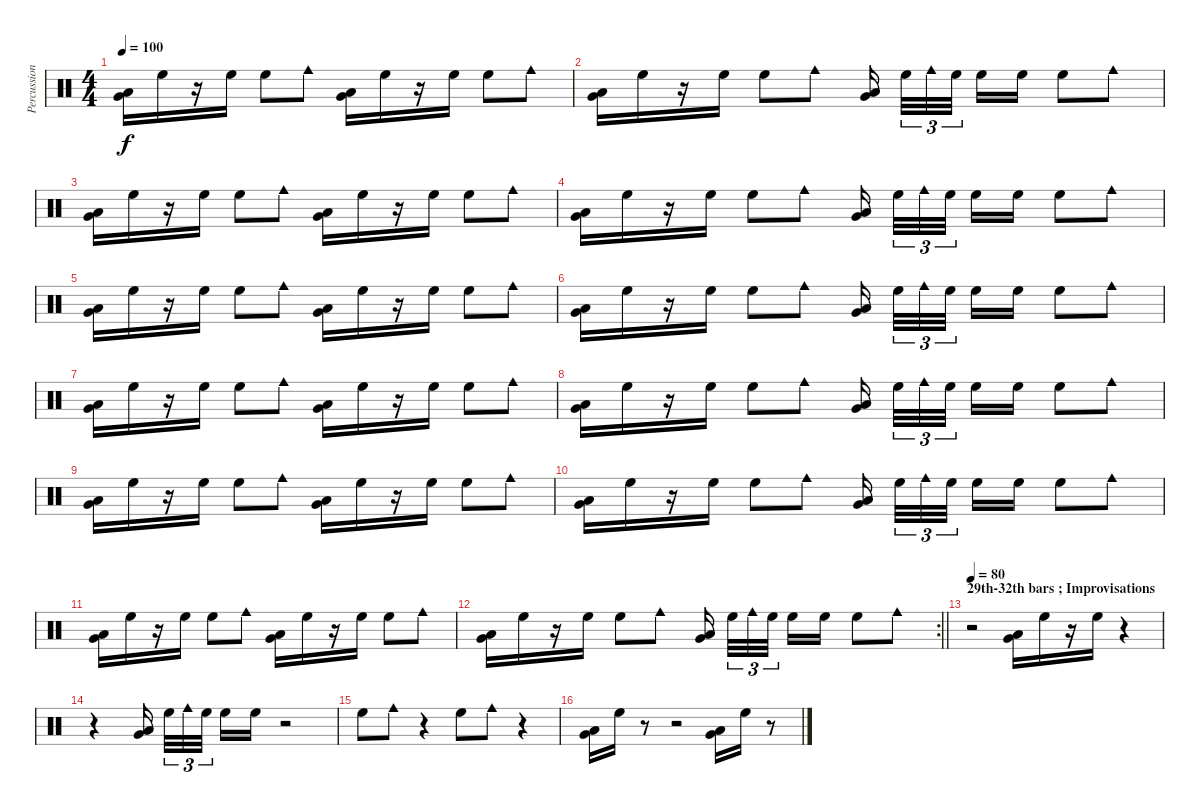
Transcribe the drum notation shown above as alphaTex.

\track ("Percussion" "Percussion") {instrument percussion}
\staff {score}
\articulation defaults
\ts (4 4)
\tempo 100
\clef neutral
\ks c
("Low Floor Tom (hit)" "Very Low Tom (hit)").16{dy f} "High Floor Tom (hit)".16 r.16 "High Floor Tom (hit)".16 "High Floor Tom (hit)".8 "Cowbell medium (hit)".8 ("Low Floor Tom (hit)" "Very Low Tom (hit)").16 "High Floor Tom (hit)".16 r.16 "High Floor Tom (hit)".16 "High Floor Tom (hit)".8 "Cowbell medium (hit)".8 |
("Low Floor Tom (hit)" "Very Low Tom (hit)").16 "High Floor Tom (hit)".16 r.16 "High Floor Tom (hit)".16 "High Floor Tom (hit)".8 "Cowbell medium (hit)".8 ("Low Floor Tom (hit)" "Very Low Tom (hit)").16{beam splitsecondary} "High Floor Tom (hit)".32{tu (3 2)} "Cowbell medium (hit)".32{tu (3 2)} "High Floor Tom (hit)".32{tu (3 2) beam splitsecondary} "High Floor Tom (hit)".16 "High Floor Tom (hit)".16 "High Floor Tom (hit)".8 "Cowbell medium (hit)".8 |
("Low Floor Tom (hit)" "Very Low Tom (hit)").16 "High Floor Tom (hit)".16 r.16 "High Floor Tom (hit)".16 "High Floor Tom (hit)".8 "Cowbell medium (hit)".8 ("Low Floor Tom (hit)" "Very Low Tom (hit)").16 "High Floor Tom (hit)".16 r.16 "High Floor Tom (hit)".16 "High Floor Tom (hit)".8 "Cowbell medium (hit)".8 |
("Low Floor Tom (hit)" "Very Low Tom (hit)").16 "High Floor Tom (hit)".16 r.16 "High Floor Tom (hit)".16 "High Floor Tom (hit)".8 "Cowbell medium (hit)".8 ("Low Floor Tom (hit)" "Very Low Tom (hit)").16{beam splitsecondary} "High Floor Tom (hit)".32{tu (3 2)} "Cowbell medium (hit)".32{tu (3 2)} "High Floor Tom (hit)".32{tu (3 2) beam splitsecondary} "High Floor Tom (hit)".16 "High Floor Tom (hit)".16 "High Floor Tom (hit)".8 "Cowbell medium (hit)".8 |
("Low Floor Tom (hit)" "Very Low Tom (hit)").16 "High Floor Tom (hit)".16 r.16 "High Floor Tom (hit)".16 "High Floor Tom (hit)".8 "Cowbell medium (hit)".8 ("Low Floor Tom (hit)" "Very Low Tom (hit)").16 "High Floor Tom (hit)".16 r.16 "High Floor Tom (hit)".16 "High Floor Tom (hit)".8 "Cowbell medium (hit)".8 |
("Low Floor Tom (hit)" "Very Low Tom (hit)").16 "High Floor Tom (hit)".16 r.16 "High Floor Tom (hit)".16 "High Floor Tom (hit)".8 "Cowbell medium (hit)".8 ("Low Floor Tom (hit)" "Very Low Tom (hit)").16{beam splitsecondary} "High Floor Tom (hit)".32{tu (3 2)} "Cowbell medium (hit)".32{tu (3 2)} "High Floor Tom (hit)".32{tu (3 2) beam splitsecondary} "High Floor Tom (hit)".16 "High Floor Tom (hit)".16 "High Floor Tom (hit)".8 "Cowbell medium (hit)".8 |
("Low Floor Tom (hit)" "Very Low Tom (hit)").16 "High Floor Tom (hit)".16 r.16 "High Floor Tom (hit)".16 "High Floor Tom (hit)".8 "Cowbell medium (hit)".8 ("Low Floor Tom (hit)" "Very Low Tom (hit)").16 "High Floor Tom (hit)".16 r.16 "High Floor Tom (hit)".16 "High Floor Tom (hit)".8 "Cowbell medium (hit)".8 |
("Low Floor Tom (hit)" "Very Low Tom (hit)").16 "High Floor Tom (hit)".16 r.16 "High Floor Tom (hit)".16 "High Floor Tom (hit)".8 "Cowbell medium (hit)".8 ("Low Floor Tom (hit)" "Very Low Tom (hit)").16{beam splitsecondary} "High Floor Tom (hit)".32{tu (3 2)} "Cowbell medium (hit)".32{tu (3 2)} "High Floor Tom (hit)".32{tu (3 2) beam splitsecondary} "High Floor Tom (hit)".16 "High Floor Tom (hit)".16 "High Floor Tom (hit)".8 "Cowbell medium (hit)".8 |
("Low Floor Tom (hit)" "Very Low Tom (hit)").16 "High Floor Tom (hit)".16 r.16 "High Floor Tom (hit)".16 "High Floor Tom (hit)".8 "Cowbell medium (hit)".8 ("Low Floor Tom (hit)" "Very Low Tom (hit)").16 "High Floor Tom (hit)".16 r.16 "High Floor Tom (hit)".16 "High Floor Tom (hit)".8 "Cowbell medium (hit)".8 |
("Low Floor Tom (hit)" "Very Low Tom (hit)").16 "High Floor Tom (hit)".16 r.16 "High Floor Tom (hit)".16 "High Floor Tom (hit)".8 "Cowbell medium (hit)".8 ("Low Floor Tom (hit)" "Very Low Tom (hit)").16{beam splitsecondary} "High Floor Tom (hit)".32{tu (3 2)} "Cowbell medium (hit)".32{tu (3 2)} "High Floor Tom (hit)".32{tu (3 2) beam splitsecondary} "High Floor Tom (hit)".16 "High Floor Tom (hit)".16 "High Floor Tom (hit)".8 "Cowbell medium (hit)".8 |
("Low Floor Tom (hit)" "Very Low Tom (hit)").16 "High Floor Tom (hit)".16 r.16 "High Floor Tom (hit)".16 "High Floor Tom (hit)".8 "Cowbell medium (hit)".8 ("Low Floor Tom (hit)" "Very Low Tom (hit)").16 "High Floor Tom (hit)".16 r.16 "High Floor Tom (hit)".16 "High Floor Tom (hit)".8 "Cowbell medium (hit)".8 |
\rc 2
\barLineRight lightlight
("Low Floor Tom (hit)" "Very Low Tom (hit)").16 "High Floor Tom (hit)".16 r.16 "High Floor Tom (hit)".16 "High Floor Tom (hit)".8 "Cowbell medium (hit)".8 ("Low Floor Tom (hit)" "Very Low Tom (hit)").16{beam splitsecondary} "High Floor Tom (hit)".32{tu (3 2)} "Cowbell medium (hit)".32{tu (3 2)} "High Floor Tom (hit)".32{tu (3 2) beam splitsecondary} "High Floor Tom (hit)".16 "High Floor Tom (hit)".16 "High Floor Tom (hit)".8 "Cowbell medium (hit)".8 |
\section ("" "29th-32th bars ; Improvisations")
\tempo 80
r.2 ("Low Floor Tom (hit)" "Very Low Tom (hit)").16 "High Floor Tom (hit)".16 r.16 "High Floor Tom (hit)".16 r.4 |
r.4 ("Low Floor Tom (hit)" "Very Low Tom (hit)").16{beam splitsecondary} "High Floor Tom (hit)".32{tu (3 2)} "Cowbell medium (hit)".32{tu (3 2)} "High Floor Tom (hit)".32{tu (3 2) beam splitsecondary} "High Floor Tom (hit)".16 "High Floor Tom (hit)".16 r.2 |
"High Floor Tom (hit)".8 "Cowbell medium (hit)".8 r.4 "High Floor Tom (hit)".8 "Cowbell medium (hit)".8 r.4 |
("Low Floor Tom (hit)" "Very Low Tom (hit)").16 "High Floor Tom (hit)".16 r.8 r.2 ("Low Floor Tom (hit)" "Very Low Tom (hit)").16 "High Floor Tom (hit)".16 r.8
